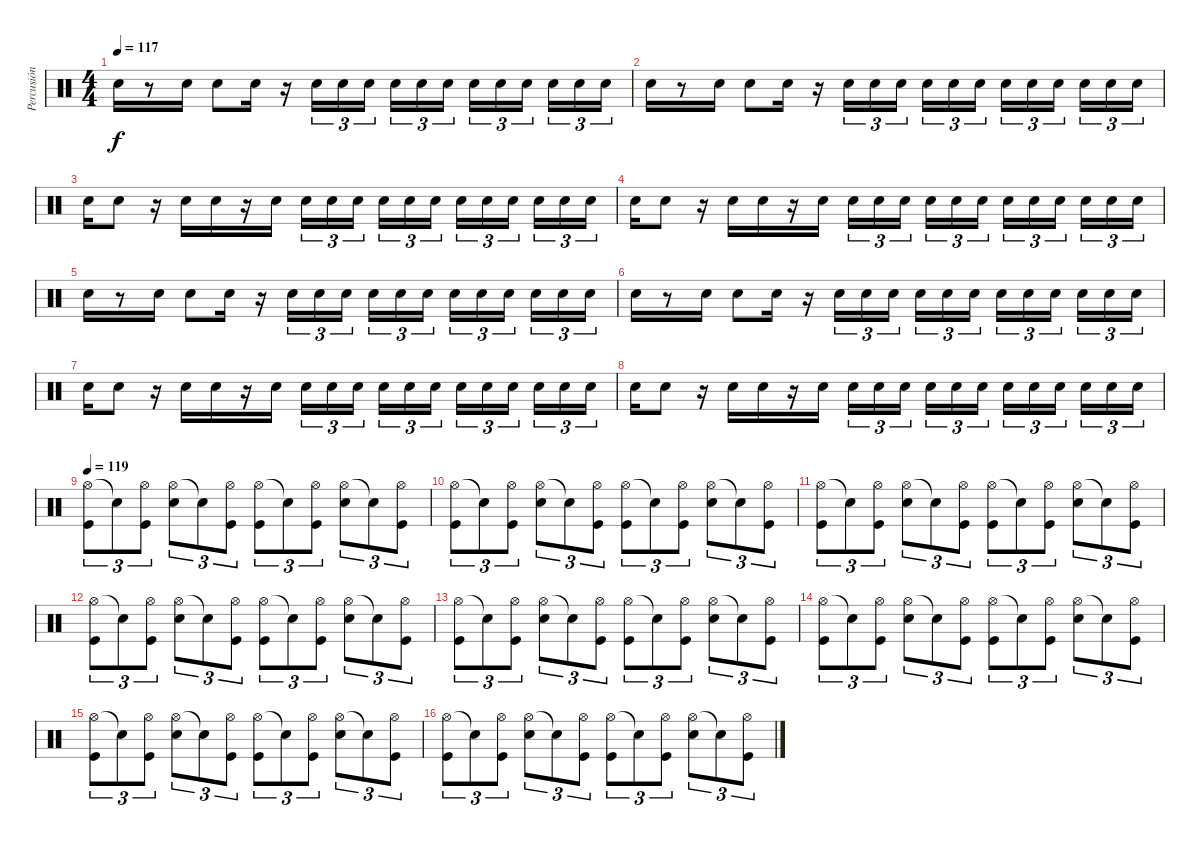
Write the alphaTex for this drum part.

\track ("Percusión" "Percusión") {instrument percussion}
\staff {score}
\articulation defaults
\ts (4 4)
\tempo 117
\clef neutral
\ks c "Snare (hit) 2".16{dy f}
r.8 "Snare (hit) 2".16 "Snare (hit) 2".8 "Snare (hit) 2".16 r.16 "Snare (hit) 2".16{tu (3 2)} "Snare (hit) 2".16{tu (3 2)} "Snare (hit) 2".16{tu (3 2)} "Snare (hit) 2".16{tu (3 2)} "Snare (hit) 2".16{tu (3 2)} "Snare (hit) 2".16{tu (3 2)} "Snare (hit) 2".16{tu (3 2)} "Snare (hit) 2".16{tu (3 2)} "Snare (hit) 2".16{tu (3 2)} "Snare (hit) 2".16{tu (3 2)} "Snare (hit) 2".16{tu (3 2)} "Snare (hit) 2".16{tu (3 2)} |
"Snare (hit) 2".16 r.8 "Snare (hit) 2".16 "Snare (hit) 2".8 "Snare (hit) 2".16 r.16 "Snare (hit) 2".16{tu (3 2)} "Snare (hit) 2".16{tu (3 2)} "Snare (hit) 2".16{tu (3 2)} "Snare (hit) 2".16{tu (3 2)} "Snare (hit) 2".16{tu (3 2)} "Snare (hit) 2".16{tu (3 2)} "Snare (hit) 2".16{tu (3 2)} "Snare (hit) 2".16{tu (3 2)} "Snare (hit) 2".16{tu (3 2)} "Snare (hit) 2".16{tu (3 2)} "Snare (hit) 2".16{tu (3 2)} "Snare (hit) 2".16{tu (3 2)} |
"Snare (hit) 2".16 "Snare (hit) 2".8 r.16 "Snare (hit) 2".16 "Snare (hit) 2".16 r.16 "Snare (hit) 2".16 "Snare (hit) 2".16{tu (3 2)} "Snare (hit) 2".16{tu (3 2)} "Snare (hit) 2".16{tu (3 2)} "Snare (hit) 2".16{tu (3 2)} "Snare (hit) 2".16{tu (3 2)} "Snare (hit) 2".16{tu (3 2)} "Snare (hit) 2".16{tu (3 2)} "Snare (hit) 2".16{tu (3 2)} "Snare (hit) 2".16{tu (3 2)} "Snare (hit) 2".16{tu (3 2)} "Snare (hit) 2".16{tu (3 2)} "Snare (hit) 2".16{tu (3 2)} |
"Snare (hit) 2".16 "Snare (hit) 2".8 r.16 "Snare (hit) 2".16 "Snare (hit) 2".16 r.16 "Snare (hit) 2".16 "Snare (hit) 2".16{tu (3 2)} "Snare (hit) 2".16{tu (3 2)} "Snare (hit) 2".16{tu (3 2)} "Snare (hit) 2".16{tu (3 2)} "Snare (hit) 2".16{tu (3 2)} "Snare (hit) 2".16{tu (3 2)} "Snare (hit) 2".16{tu (3 2)} "Snare (hit) 2".16{tu (3 2)} "Snare (hit) 2".16{tu (3 2)} "Snare (hit) 2".16{tu (3 2)} "Snare (hit) 2".16{tu (3 2)} "Snare (hit) 2".16{tu (3 2)} |
"Snare (hit) 2".16 r.8 "Snare (hit) 2".16 "Snare (hit) 2".8 "Snare (hit) 2".16 r.16 "Snare (hit) 2".16{tu (3 2)} "Snare (hit) 2".16{tu (3 2)} "Snare (hit) 2".16{tu (3 2)} "Snare (hit) 2".16{tu (3 2)} "Snare (hit) 2".16{tu (3 2)} "Snare (hit) 2".16{tu (3 2)} "Snare (hit) 2".16{tu (3 2)} "Snare (hit) 2".16{tu (3 2)} "Snare (hit) 2".16{tu (3 2)} "Snare (hit) 2".16{tu (3 2)} "Snare (hit) 2".16{tu (3 2)} "Snare (hit) 2".16{tu (3 2)} |
"Snare (hit) 2".16 r.8 "Snare (hit) 2".16 "Snare (hit) 2".8 "Snare (hit) 2".16 r.16 "Snare (hit) 2".16{tu (3 2)} "Snare (hit) 2".16{tu (3 2)} "Snare (hit) 2".16{tu (3 2)} "Snare (hit) 2".16{tu (3 2)} "Snare (hit) 2".16{tu (3 2)} "Snare (hit) 2".16{tu (3 2)} "Snare (hit) 2".16{tu (3 2)} "Snare (hit) 2".16{tu (3 2)} "Snare (hit) 2".16{tu (3 2)} "Snare (hit) 2".16{tu (3 2)} "Snare (hit) 2".16{tu (3 2)} "Snare (hit) 2".16{tu (3 2)} |
"Snare (hit) 2".16 "Snare (hit) 2".8 r.16 "Snare (hit) 2".16 "Snare (hit) 2".16 r.16 "Snare (hit) 2".16 "Snare (hit) 2".16{tu (3 2)} "Snare (hit) 2".16{tu (3 2)} "Snare (hit) 2".16{tu (3 2)} "Snare (hit) 2".16{tu (3 2)} "Snare (hit) 2".16{tu (3 2)} "Snare (hit) 2".16{tu (3 2)} "Snare (hit) 2".16{tu (3 2)} "Snare (hit) 2".16{tu (3 2)} "Snare (hit) 2".16{tu (3 2)} "Snare (hit) 2".16{tu (3 2)} "Snare (hit) 2".16{tu (3 2)} "Snare (hit) 2".16{tu (3 2)} |
"Snare (hit) 2".16 "Snare (hit) 2".8 r.16 "Snare (hit) 2".16 "Snare (hit) 2".16 r.16 "Snare (hit) 2".16 "Snare (hit) 2".16{tu (3 2)} "Snare (hit) 2".16{tu (3 2)} "Snare (hit) 2".16{tu (3 2)} "Snare (hit) 2".16{tu (3 2)} "Snare (hit) 2".16{tu (3 2)} "Snare (hit) 2".16{tu (3 2)} "Snare (hit) 2".16{tu (3 2)} "Snare (hit) 2".16{tu (3 2)} "Snare (hit) 2".16{tu (3 2)} "Snare (hit) 2".16{tu (3 2)} "Snare (hit) 2".16{tu (3 2)} "Snare (hit) 2".16{tu (3 2)} |
\tempo 119
("Hi-Hat (open)" "Kick (hit)").8{tu (3 2)} "Snare (hit)"{t}.8{tu (3 2)} ("Hi-Hat (open)" "Kick (hit)").8{tu (3 2)} ("Hi-Hat (open)" "Snare (hit) 2").8{tu (3 2)} "Snare (hit)"{t}.8{tu (3 2)} ("Hi-Hat (open)" "Kick (hit)").8{tu (3 2)} ("Hi-Hat (open)" "Kick (hit)").8{tu (3 2)} "Snare (hit)"{t}.8{tu (3 2)} ("Hi-Hat (open)" "Kick (hit)").8{tu (3 2)} ("Hi-Hat (open)" "Snare (hit) 2").8{tu (3 2)} "Snare (hit)"{t}.8{tu (3 2)} ("Hi-Hat (open)" "Kick (hit)").8{tu (3 2)} |
("Hi-Hat (open)" "Kick (hit)").8{tu (3 2)} "Snare (hit)"{t}.8{tu (3 2)} ("Hi-Hat (open)" "Kick (hit)").8{tu (3 2)} ("Hi-Hat (open)" "Snare (hit) 2").8{tu (3 2)} "Snare (hit)"{t}.8{tu (3 2)} ("Hi-Hat (open)" "Kick (hit)").8{tu (3 2)} ("Hi-Hat (open)" "Kick (hit)").8{tu (3 2)} "Snare (hit)"{t}.8{tu (3 2)} ("Hi-Hat (open)" "Kick (hit)").8{tu (3 2)} ("Hi-Hat (open)" "Snare (hit) 2").8{tu (3 2)} "Snare (hit)"{t}.8{tu (3 2)} ("Hi-Hat (open)" "Kick (hit)").8{tu (3 2)} |
("Hi-Hat (open)" "Kick (hit)").8{tu (3 2)} "Snare (hit)"{t}.8{tu (3 2)} ("Hi-Hat (open)" "Kick (hit)").8{tu (3 2)} ("Hi-Hat (open)" "Snare (hit) 2").8{tu (3 2)} "Snare (hit)"{t}.8{tu (3 2)} ("Hi-Hat (open)" "Kick (hit)").8{tu (3 2)} ("Hi-Hat (open)" "Kick (hit)").8{tu (3 2)} "Snare (hit)"{t}.8{tu (3 2)} ("Hi-Hat (open)" "Kick (hit)").8{tu (3 2)} ("Hi-Hat (open)" "Snare (hit) 2").8{tu (3 2)} "Snare (hit)"{t}.8{tu (3 2)} ("Hi-Hat (open)" "Kick (hit)").8{tu (3 2)} |
("Hi-Hat (open)" "Kick (hit)").8{tu (3 2)} "Snare (hit)"{t}.8{tu (3 2)} ("Hi-Hat (open)" "Kick (hit)").8{tu (3 2)} ("Hi-Hat (open)" "Snare (hit) 2").8{tu (3 2)} "Snare (hit)"{t}.8{tu (3 2)} ("Hi-Hat (open)" "Kick (hit)").8{tu (3 2)} ("Hi-Hat (open)" "Kick (hit)").8{tu (3 2)} "Snare (hit)"{t}.8{tu (3 2)} ("Hi-Hat (open)" "Kick (hit)").8{tu (3 2)} ("Hi-Hat (open)" "Snare (hit) 2").8{tu (3 2)} "Snare (hit)"{t}.8{tu (3 2)} ("Hi-Hat (open)" "Kick (hit)").8{tu (3 2)} |
("Hi-Hat (open)" "Kick (hit)").8{tu (3 2)} "Snare (hit)"{t}.8{tu (3 2)} ("Hi-Hat (open)" "Kick (hit)").8{tu (3 2)} ("Hi-Hat (open)" "Snare (hit) 2").8{tu (3 2)} "Snare (hit)"{t}.8{tu (3 2)} ("Hi-Hat (open)" "Kick (hit)").8{tu (3 2)} ("Hi-Hat (open)" "Kick (hit)").8{tu (3 2)} "Snare (hit)"{t}.8{tu (3 2)} ("Hi-Hat (open)" "Kick (hit)").8{tu (3 2)} ("Hi-Hat (open)" "Snare (hit) 2").8{tu (3 2)} "Snare (hit)"{t}.8{tu (3 2)} ("Hi-Hat (open)" "Kick (hit)").8{tu (3 2)} |
("Hi-Hat (open)" "Kick (hit)").8{tu (3 2)} "Snare (hit)"{t}.8{tu (3 2)} ("Hi-Hat (open)" "Kick (hit)").8{tu (3 2)} ("Hi-Hat (open)" "Snare (hit) 2").8{tu (3 2)} "Snare (hit)"{t}.8{tu (3 2)} ("Hi-Hat (open)" "Kick (hit)").8{tu (3 2)} ("Hi-Hat (open)" "Kick (hit)").8{tu (3 2)} "Snare (hit)"{t}.8{tu (3 2)} ("Hi-Hat (open)" "Kick (hit)").8{tu (3 2)} ("Hi-Hat (open)" "Snare (hit) 2").8{tu (3 2)} "Snare (hit)"{t}.8{tu (3 2)} ("Hi-Hat (open)" "Kick (hit)").8{tu (3 2)} |
("Hi-Hat (open)" "Kick (hit)").8{tu (3 2)} "Snare (hit)"{t}.8{tu (3 2)} ("Hi-Hat (open)" "Kick (hit)").8{tu (3 2)} ("Hi-Hat (open)" "Snare (hit) 2").8{tu (3 2)} "Snare (hit)"{t}.8{tu (3 2)} ("Hi-Hat (open)" "Kick (hit)").8{tu (3 2)} ("Hi-Hat (open)" "Kick (hit)").8{tu (3 2)} "Snare (hit)"{t}.8{tu (3 2)} ("Hi-Hat (open)" "Kick (hit)").8{tu (3 2)} ("Hi-Hat (open)" "Snare (hit) 2").8{tu (3 2)} "Snare (hit)"{t}.8{tu (3 2)} ("Hi-Hat (open)" "Kick (hit)").8{tu (3 2)} |
("Hi-Hat (open)" "Kick (hit)").8{tu (3 2)} "Snare (hit)"{t}.8{tu (3 2)} ("Hi-Hat (open)" "Kick (hit)").8{tu (3 2)} ("Hi-Hat (open)" "Snare (hit) 2").8{tu (3 2)} "Snare (hit)"{t}.8{tu (3 2)} ("Hi-Hat (open)" "Kick (hit)").8{tu (3 2)} ("Hi-Hat (open)" "Kick (hit)").8{tu (3 2)} "Snare (hit)"{t}.8{tu (3 2)} ("Hi-Hat (open)" "Kick (hit)").8{tu (3 2)} ("Hi-Hat (open)" "Snare (hit) 2").8{tu (3 2)} "Snare (hit)"{t}.8{tu (3 2)} ("Hi-Hat (open)" "Kick (hit)").8{tu (3 2)}
